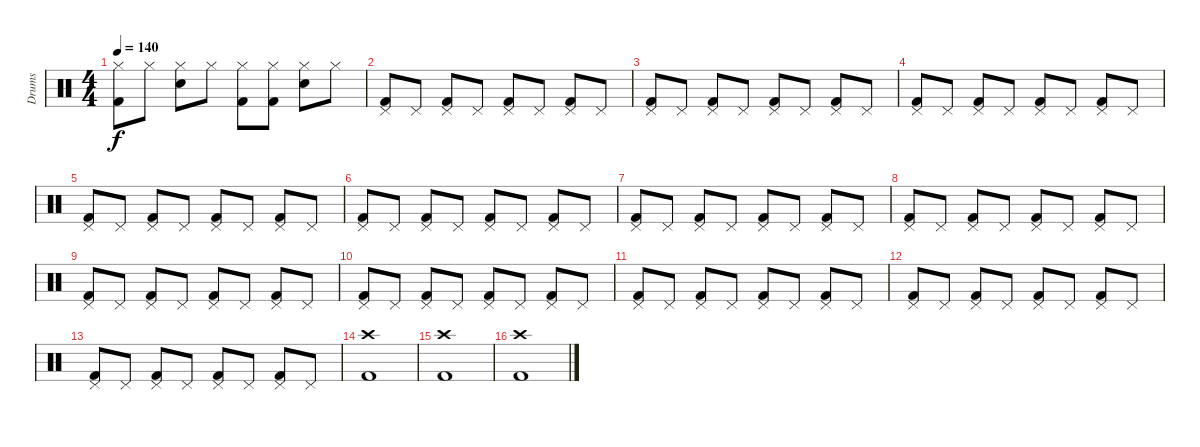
\track ("Drums" "Drums") {instrument percussion}
\staff {score}
\articulation defaults
\ts (4 4)
\tempo 140
\clef neutral
\ks c
("Hi-Hat (closed)" "Kick (hit) 2").8{dy f} "Hi-Hat (closed)".8 ("Hi-Hat (closed)" "Electric Snare (hit)").8 "Hi-Hat (closed)".8 ("Hi-Hat (closed)" "Kick (hit) 2").8 ("Hi-Hat (closed)" "Kick (hit) 2").8 ("Hi-Hat (closed)" "Electric Snare (hit)").8 "Hi-Hat (closed)".8 |
("Pedal Hi-Hat (hit)" "Kick (hit) 2").8 "Pedal Hi-Hat (hit)".8 ("Pedal Hi-Hat (hit)" "Kick (hit) 2").8 "Pedal Hi-Hat (hit)".8 ("Pedal Hi-Hat (hit)" "Kick (hit) 2").8 "Pedal Hi-Hat (hit)".8 ("Pedal Hi-Hat (hit)" "Kick (hit) 2").8 "Pedal Hi-Hat (hit)".8 |
("Pedal Hi-Hat (hit)" "Kick (hit) 2").8 "Pedal Hi-Hat (hit)".8 ("Pedal Hi-Hat (hit)" "Kick (hit) 2").8 "Pedal Hi-Hat (hit)".8 ("Pedal Hi-Hat (hit)" "Kick (hit) 2").8 "Pedal Hi-Hat (hit)".8 ("Pedal Hi-Hat (hit)" "Kick (hit) 2").8 "Pedal Hi-Hat (hit)".8 |
("Pedal Hi-Hat (hit)" "Kick (hit) 2").8 "Pedal Hi-Hat (hit)".8 ("Pedal Hi-Hat (hit)" "Kick (hit) 2").8 "Pedal Hi-Hat (hit)".8 ("Pedal Hi-Hat (hit)" "Kick (hit) 2").8 "Pedal Hi-Hat (hit)".8 ("Pedal Hi-Hat (hit)" "Kick (hit) 2").8 "Pedal Hi-Hat (hit)".8 |
("Pedal Hi-Hat (hit)" "Kick (hit) 2").8 "Pedal Hi-Hat (hit)".8 ("Pedal Hi-Hat (hit)" "Kick (hit) 2").8 "Pedal Hi-Hat (hit)".8 ("Pedal Hi-Hat (hit)" "Kick (hit) 2").8 "Pedal Hi-Hat (hit)".8 ("Pedal Hi-Hat (hit)" "Kick (hit) 2").8 "Pedal Hi-Hat (hit)".8 |
("Pedal Hi-Hat (hit)" "Kick (hit) 2").8 "Pedal Hi-Hat (hit)".8 ("Pedal Hi-Hat (hit)" "Kick (hit) 2").8 "Pedal Hi-Hat (hit)".8 ("Pedal Hi-Hat (hit)" "Kick (hit) 2").8 "Pedal Hi-Hat (hit)".8 ("Pedal Hi-Hat (hit)" "Kick (hit) 2").8 "Pedal Hi-Hat (hit)".8 |
("Pedal Hi-Hat (hit)" "Kick (hit) 2").8 "Pedal Hi-Hat (hit)".8 ("Pedal Hi-Hat (hit)" "Kick (hit) 2").8 "Pedal Hi-Hat (hit)".8 ("Pedal Hi-Hat (hit)" "Kick (hit) 2").8 "Pedal Hi-Hat (hit)".8 ("Pedal Hi-Hat (hit)" "Kick (hit) 2").8 "Pedal Hi-Hat (hit)".8 |
("Pedal Hi-Hat (hit)" "Kick (hit) 2").8 "Pedal Hi-Hat (hit)".8 ("Pedal Hi-Hat (hit)" "Kick (hit) 2").8 "Pedal Hi-Hat (hit)".8 ("Pedal Hi-Hat (hit)" "Kick (hit) 2").8 "Pedal Hi-Hat (hit)".8 ("Pedal Hi-Hat (hit)" "Kick (hit) 2").8 "Pedal Hi-Hat (hit)".8 |
("Pedal Hi-Hat (hit)" "Kick (hit) 2").8 "Pedal Hi-Hat (hit)".8 ("Pedal Hi-Hat (hit)" "Kick (hit) 2").8 "Pedal Hi-Hat (hit)".8 ("Pedal Hi-Hat (hit)" "Kick (hit) 2").8 "Pedal Hi-Hat (hit)".8 ("Pedal Hi-Hat (hit)" "Kick (hit) 2").8 "Pedal Hi-Hat (hit)".8 |
("Pedal Hi-Hat (hit)" "Kick (hit) 2").8 "Pedal Hi-Hat (hit)".8 ("Pedal Hi-Hat (hit)" "Kick (hit) 2").8 "Pedal Hi-Hat (hit)".8 ("Pedal Hi-Hat (hit)" "Kick (hit) 2").8 "Pedal Hi-Hat (hit)".8 ("Pedal Hi-Hat (hit)" "Kick (hit) 2").8 "Pedal Hi-Hat (hit)".8 |
("Pedal Hi-Hat (hit)" "Kick (hit) 2").8 "Pedal Hi-Hat (hit)".8 ("Pedal Hi-Hat (hit)" "Kick (hit) 2").8 "Pedal Hi-Hat (hit)".8 ("Pedal Hi-Hat (hit)" "Kick (hit) 2").8 "Pedal Hi-Hat (hit)".8 ("Pedal Hi-Hat (hit)" "Kick (hit) 2").8 "Pedal Hi-Hat (hit)".8 |
("Pedal Hi-Hat (hit)" "Kick (hit) 2").8 "Pedal Hi-Hat (hit)".8 ("Pedal Hi-Hat (hit)" "Kick (hit) 2").8 "Pedal Hi-Hat (hit)".8 ("Pedal Hi-Hat (hit)" "Kick (hit) 2").8 "Pedal Hi-Hat (hit)".8 ("Pedal Hi-Hat (hit)" "Kick (hit) 2").8 "Pedal Hi-Hat (hit)".8 |
("Pedal Hi-Hat (hit)" "Kick (hit) 2").8 "Pedal Hi-Hat (hit)".8 ("Pedal Hi-Hat (hit)" "Kick (hit) 2").8 "Pedal Hi-Hat (hit)".8 ("Pedal Hi-Hat (hit)" "Kick (hit) 2").8 "Pedal Hi-Hat (hit)".8 ("Pedal Hi-Hat (hit)" "Kick (hit) 2").8 "Pedal Hi-Hat (hit)".8 |
("Crash high (hit)" "Kick (hit) 2").1 |
("Crash high (hit)" "Kick (hit) 2").1 |
("Crash high (hit)" "Kick (hit) 2").1
